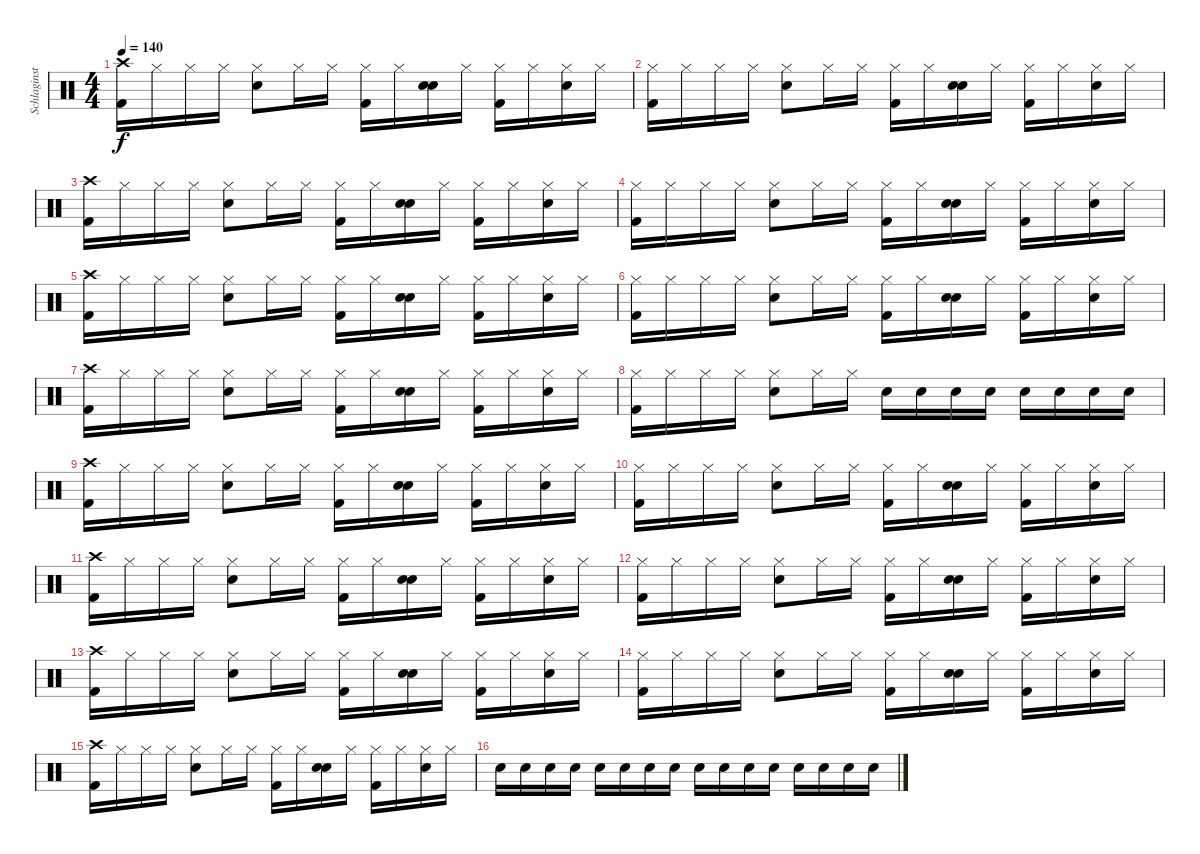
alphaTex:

\track ("Schlaginstrumente - Auswahl" "Schlaginst") {instrument percussion}
\staff {score}
\articulation defaults
\ts (4 4)
\tempo 140
\clef neutral
\ks c
("Crash high (hit)" "Kick (hit) 2").16{dy f} "Hi-Hat (closed)".16 "Hi-Hat (closed)".16 "Hi-Hat (closed)".16 ("Hi-Hat (closed)" "Electric Snare (hit)").8 "Hi-Hat (closed)".16 "Hi-Hat (closed)".16 ("Hi-Hat (closed)" "Kick (hit) 2").16 "Hi-Hat (closed)".16 ("Snare (hit)" "Electric Snare (hit)").16 "Hi-Hat (closed)".16 ("Hi-Hat (closed)" "Kick (hit) 2").16 "Hi-Hat (closed)".16 ("Hi-Hat (closed)" "Electric Snare (hit)").16 "Hi-Hat (closed)".16 |
("Hi-Hat (closed)" "Kick (hit) 2").16 "Hi-Hat (closed)".16 "Hi-Hat (closed)".16 "Hi-Hat (closed)".16 ("Hi-Hat (closed)" "Electric Snare (hit)").8 "Hi-Hat (closed)".16 "Hi-Hat (closed)".16 ("Hi-Hat (closed)" "Kick (hit) 2").16 "Hi-Hat (closed)".16 ("Snare (hit)" "Electric Snare (hit)").16 "Hi-Hat (closed)".16 ("Hi-Hat (closed)" "Kick (hit) 2").16 "Hi-Hat (closed)".16 ("Hi-Hat (closed)" "Electric Snare (hit)").16 "Hi-Hat (closed)".16 |
("Crash high (hit)" "Kick (hit) 2").16 "Hi-Hat (closed)".16 "Hi-Hat (closed)".16 "Hi-Hat (closed)".16 ("Hi-Hat (closed)" "Electric Snare (hit)").8 "Hi-Hat (closed)".16 "Hi-Hat (closed)".16 ("Hi-Hat (closed)" "Kick (hit) 2").16 "Hi-Hat (closed)".16 ("Snare (hit)" "Electric Snare (hit)").16 "Hi-Hat (closed)".16 ("Hi-Hat (closed)" "Kick (hit) 2").16 "Hi-Hat (closed)".16 ("Hi-Hat (closed)" "Electric Snare (hit)").16 "Hi-Hat (closed)".16 |
("Hi-Hat (closed)" "Kick (hit) 2").16 "Hi-Hat (closed)".16 "Hi-Hat (closed)".16 "Hi-Hat (closed)".16 ("Hi-Hat (closed)" "Electric Snare (hit)").8 "Hi-Hat (closed)".16 "Hi-Hat (closed)".16 ("Hi-Hat (closed)" "Kick (hit) 2").16 "Hi-Hat (closed)".16 ("Snare (hit)" "Electric Snare (hit)").16 "Hi-Hat (closed)".16 ("Hi-Hat (closed)" "Kick (hit) 2").16 "Hi-Hat (closed)".16 ("Hi-Hat (closed)" "Electric Snare (hit)").16 "Hi-Hat (closed)".16 |
("Crash high (hit)" "Kick (hit) 2").16 "Hi-Hat (closed)".16 "Hi-Hat (closed)".16 "Hi-Hat (closed)".16 ("Hi-Hat (closed)" "Electric Snare (hit)").8 "Hi-Hat (closed)".16 "Hi-Hat (closed)".16 ("Hi-Hat (closed)" "Kick (hit) 2").16 "Hi-Hat (closed)".16 ("Snare (hit)" "Electric Snare (hit)").16 "Hi-Hat (closed)".16 ("Hi-Hat (closed)" "Kick (hit) 2").16 "Hi-Hat (closed)".16 ("Hi-Hat (closed)" "Electric Snare (hit)").16 "Hi-Hat (closed)".16 |
("Hi-Hat (closed)" "Kick (hit) 2").16 "Hi-Hat (closed)".16 "Hi-Hat (closed)".16 "Hi-Hat (closed)".16 ("Hi-Hat (closed)" "Electric Snare (hit)").8 "Hi-Hat (closed)".16 "Hi-Hat (closed)".16 ("Hi-Hat (closed)" "Kick (hit) 2").16 "Hi-Hat (closed)".16 ("Snare (hit)" "Electric Snare (hit)").16 "Hi-Hat (closed)".16 ("Hi-Hat (closed)" "Kick (hit) 2").16 "Hi-Hat (closed)".16 ("Hi-Hat (closed)" "Electric Snare (hit)").16 "Hi-Hat (closed)".16 |
("Crash high (hit)" "Kick (hit) 2").16 "Hi-Hat (closed)".16 "Hi-Hat (closed)".16 "Hi-Hat (closed)".16 ("Hi-Hat (closed)" "Electric Snare (hit)").8 "Hi-Hat (closed)".16 "Hi-Hat (closed)".16 ("Hi-Hat (closed)" "Kick (hit) 2").16 "Hi-Hat (closed)".16 ("Snare (hit)" "Electric Snare (hit)").16 "Hi-Hat (closed)".16 ("Hi-Hat (closed)" "Kick (hit) 2").16 "Hi-Hat (closed)".16 ("Hi-Hat (closed)" "Electric Snare (hit)").16 "Hi-Hat (closed)".16 |
("Hi-Hat (closed)" "Kick (hit) 2").16 "Hi-Hat (closed)".16 "Hi-Hat (closed)".16 "Hi-Hat (closed)".16 ("Hi-Hat (closed)" "Electric Snare (hit)").8 "Hi-Hat (closed)".16 "Hi-Hat (closed)".16 "Electric Snare (hit)".16 "Electric Snare (hit)".16 "Electric Snare (hit)".16 "Electric Snare (hit)".16 "Electric Snare (hit)".16 "Electric Snare (hit)".16 "Electric Snare (hit)".16 "Electric Snare (hit)".16 |
("Crash high (hit)" "Kick (hit) 2").16 "Hi-Hat (closed)".16 "Hi-Hat (closed)".16 "Hi-Hat (closed)".16 ("Hi-Hat (closed)" "Electric Snare (hit)").8 "Hi-Hat (closed)".16 "Hi-Hat (closed)".16 ("Hi-Hat (closed)" "Kick (hit) 2").16 "Hi-Hat (closed)".16 ("Snare (hit)" "Electric Snare (hit)").16 "Hi-Hat (closed)".16 ("Hi-Hat (closed)" "Kick (hit) 2").16 "Hi-Hat (closed)".16 ("Hi-Hat (closed)" "Electric Snare (hit)").16 "Hi-Hat (closed)".16 |
("Hi-Hat (closed)" "Kick (hit) 2").16 "Hi-Hat (closed)".16 "Hi-Hat (closed)".16 "Hi-Hat (closed)".16 ("Hi-Hat (closed)" "Electric Snare (hit)").8 "Hi-Hat (closed)".16 "Hi-Hat (closed)".16 ("Hi-Hat (closed)" "Kick (hit) 2").16 "Hi-Hat (closed)".16 ("Snare (hit)" "Electric Snare (hit)").16 "Hi-Hat (closed)".16 ("Hi-Hat (closed)" "Kick (hit) 2").16 "Hi-Hat (closed)".16 ("Hi-Hat (closed)" "Electric Snare (hit)").16 "Hi-Hat (closed)".16 |
("Crash high (hit)" "Kick (hit) 2").16 "Hi-Hat (closed)".16 "Hi-Hat (closed)".16 "Hi-Hat (closed)".16 ("Hi-Hat (closed)" "Electric Snare (hit)").8 "Hi-Hat (closed)".16 "Hi-Hat (closed)".16 ("Hi-Hat (closed)" "Kick (hit) 2").16 "Hi-Hat (closed)".16 ("Snare (hit)" "Electric Snare (hit)").16 "Hi-Hat (closed)".16 ("Hi-Hat (closed)" "Kick (hit) 2").16 "Hi-Hat (closed)".16 ("Hi-Hat (closed)" "Electric Snare (hit)").16 "Hi-Hat (closed)".16 |
("Hi-Hat (closed)" "Kick (hit) 2").16 "Hi-Hat (closed)".16 "Hi-Hat (closed)".16 "Hi-Hat (closed)".16 ("Hi-Hat (closed)" "Electric Snare (hit)").8 "Hi-Hat (closed)".16 "Hi-Hat (closed)".16 ("Hi-Hat (closed)" "Kick (hit) 2").16 "Hi-Hat (closed)".16 ("Snare (hit)" "Electric Snare (hit)").16 "Hi-Hat (closed)".16 ("Hi-Hat (closed)" "Kick (hit) 2").16 "Hi-Hat (closed)".16 ("Hi-Hat (closed)" "Electric Snare (hit)").16 "Hi-Hat (closed)".16 |
("Crash high (hit)" "Kick (hit) 2").16 "Hi-Hat (closed)".16 "Hi-Hat (closed)".16 "Hi-Hat (closed)".16 ("Hi-Hat (closed)" "Electric Snare (hit)").8 "Hi-Hat (closed)".16 "Hi-Hat (closed)".16 ("Hi-Hat (closed)" "Kick (hit) 2").16 "Hi-Hat (closed)".16 ("Snare (hit)" "Electric Snare (hit)").16 "Hi-Hat (closed)".16 ("Hi-Hat (closed)" "Kick (hit) 2").16 "Hi-Hat (closed)".16 ("Hi-Hat (closed)" "Electric Snare (hit)").16 "Hi-Hat (closed)".16 |
("Hi-Hat (closed)" "Kick (hit) 2").16 "Hi-Hat (closed)".16 "Hi-Hat (closed)".16 "Hi-Hat (closed)".16 ("Hi-Hat (closed)" "Electric Snare (hit)").8 "Hi-Hat (closed)".16 "Hi-Hat (closed)".16 ("Hi-Hat (closed)" "Kick (hit) 2").16 "Hi-Hat (closed)".16 ("Snare (hit)" "Electric Snare (hit)").16 "Hi-Hat (closed)".16 ("Hi-Hat (closed)" "Kick (hit) 2").16 "Hi-Hat (closed)".16 ("Hi-Hat (closed)" "Electric Snare (hit)").16 "Hi-Hat (closed)".16 |
("Crash high (hit)" "Kick (hit) 2").16 "Hi-Hat (closed)".16 "Hi-Hat (closed)".16 "Hi-Hat (closed)".16 ("Hi-Hat (closed)" "Electric Snare (hit)").8 "Hi-Hat (closed)".16 "Hi-Hat (closed)".16 ("Hi-Hat (closed)" "Kick (hit) 2").16 "Hi-Hat (closed)".16 ("Snare (hit)" "Electric Snare (hit)").16 "Hi-Hat (closed)".16 ("Hi-Hat (closed)" "Kick (hit) 2").16 "Hi-Hat (closed)".16 ("Hi-Hat (closed)" "Electric Snare (hit)").16 "Hi-Hat (closed)".16 |
"Electric Snare (hit)".16 "Electric Snare (hit)".16 "Electric Snare (hit)".16 "Electric Snare (hit)".16 "Electric Snare (hit)".16 "Electric Snare (hit)".16 "Electric Snare (hit)".16 "Electric Snare (hit)".16 "Electric Snare (hit)".16 "Electric Snare (hit)".16 "Electric Snare (hit)".16 "Electric Snare (hit)".16 "Electric Snare (hit)".16 "Electric Snare (hit)".16 "Electric Snare (hit)".16 "Electric Snare (hit)".16
